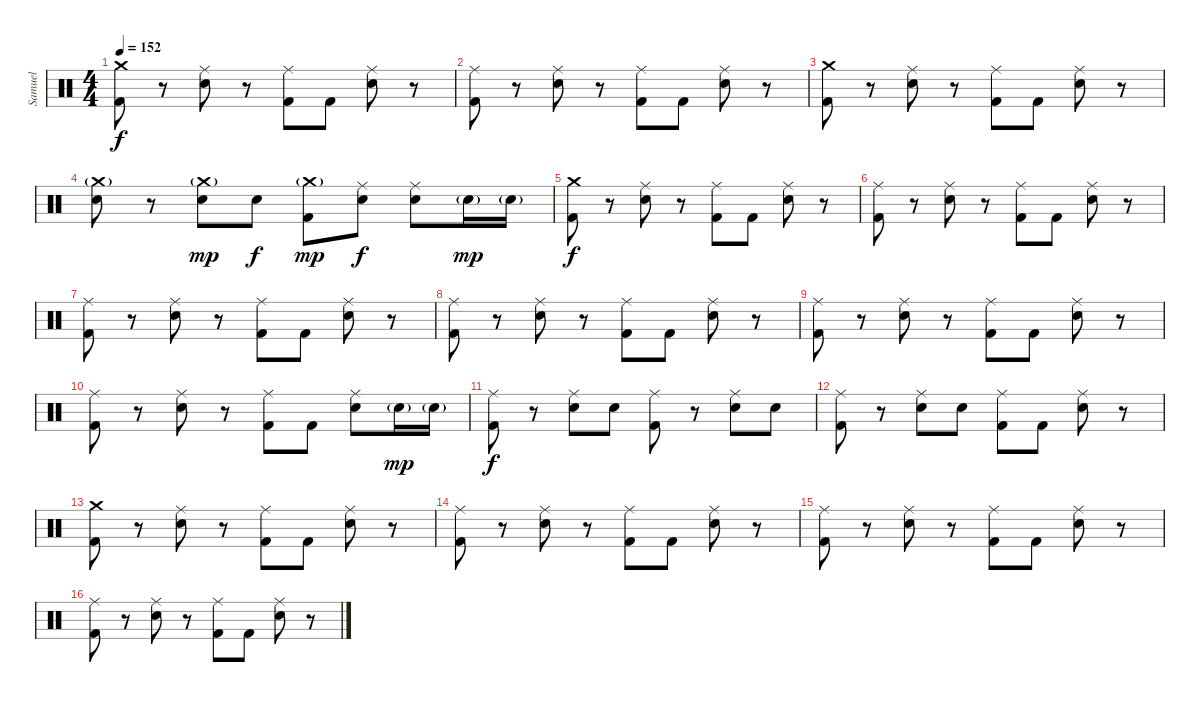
\track ("Samuel" "Samuel") {instrument percussion}
\staff {score}
\articulation defaults
\ts (4 4)
\tempo 152
\clef neutral
\ks c
("Crash medium (hit)" "Kick (hit) 2").8{dy f} r.8 ("Ride (middle)" "Snare (hit) 2").8 r.8 ("Ride (middle)" "Kick (hit) 2").8 "Kick (hit) 2".8 ("Ride (middle)" "Snare (hit) 2").8 r.8 |
("Ride (middle)" "Kick (hit) 2").8 r.8 ("Ride (middle)" "Snare (hit) 2").8 r.8 ("Ride (middle)" "Kick (hit) 2").8 "Kick (hit) 2".8 ("Ride (middle)" "Snare (hit) 2").8 r.8 |
("Crash medium (hit)" "Kick (hit) 2").8 r.8 ("Ride (middle)" "Snare (hit) 2").8 r.8 ("Ride (middle)" "Kick (hit) 2").8 "Kick (hit) 2".8 ("Ride (middle)" "Snare (hit) 2").8 r.8 |
("Crash medium (hit)"{g} "Snare (hit) 2").8 r.8 ("Crash medium (hit)"{g} "Snare (hit) 2").8{dy mp} "Snare (hit) 2".8{dy f} ("Crash medium (hit)"{g} "Kick (hit) 2").8{dy mp} ("Ride (middle)" "Snare (hit) 2").8{dy f} ("Ride (middle)" "Snare (hit) 2").8 "Snare (hit) 2"{g}.16{dy mp} "Snare (hit) 2"{g}.16 |
("Crash medium (hit)" "Kick (hit) 2").8{dy f} r.8 ("Ride (middle)" "Snare (hit) 2").8 r.8 ("Ride (middle)" "Kick (hit) 2").8 "Kick (hit) 2".8 ("Ride (middle)" "Snare (hit) 2").8 r.8 |
("Ride (middle)" "Kick (hit) 2").8 r.8 ("Ride (middle)" "Snare (hit) 2").8 r.8 ("Ride (middle)" "Kick (hit) 2").8 "Kick (hit) 2".8 ("Ride (middle)" "Snare (hit) 2").8 r.8 |
("Ride (middle)" "Kick (hit) 2").8 r.8 ("Ride (middle)" "Snare (hit) 2").8 r.8 ("Ride (middle)" "Kick (hit) 2").8 "Kick (hit) 2".8 ("Ride (middle)" "Snare (hit) 2").8 r.8 |
("Ride (middle)" "Kick (hit) 2").8 r.8 ("Ride (middle)" "Snare (hit) 2").8 r.8 ("Ride (middle)" "Kick (hit) 2").8 "Kick (hit) 2".8 ("Ride (middle)" "Snare (hit) 2").8 r.8 |
("Ride (middle)" "Kick (hit) 2").8 r.8 ("Ride (middle)" "Snare (hit) 2").8 r.8 ("Ride (middle)" "Kick (hit) 2").8 "Kick (hit) 2".8 ("Ride (middle)" "Snare (hit) 2").8 r.8 |
("Ride (middle)" "Kick (hit) 2").8 r.8 ("Ride (middle)" "Snare (hit) 2").8 r.8 ("Ride (middle)" "Kick (hit) 2").8 "Kick (hit) 2".8 ("Ride (middle)" "Snare (hit) 2").8 "Snare (hit) 2"{g}.16{dy mp} "Snare (hit) 2"{g}.16 |
("Ride (middle)" "Kick (hit) 2").8{dy f} r.8 ("Ride (middle)" "Snare (hit) 2").8 "Snare (hit) 2".8 ("Ride (middle)" "Kick (hit) 2").8 r.8 ("Ride (middle)" "Snare (hit) 2").8 "Snare (hit) 2".8 |
("Ride (middle)" "Kick (hit) 2").8 r.8 ("Ride (middle)" "Snare (hit) 2").8 "Snare (hit) 2".8 ("Ride (middle)" "Kick (hit) 2").8 "Kick (hit) 2".8 ("Ride (middle)" "Snare (hit) 2").8 r.8 |
("Crash medium (hit)" "Kick (hit) 2").8 r.8 ("Ride (middle)" "Snare (hit) 2").8 r.8 ("Ride (middle)" "Kick (hit) 2").8 "Kick (hit) 2".8 ("Ride (middle)" "Snare (hit) 2").8 r.8 |
("Ride (middle)" "Kick (hit) 2").8 r.8 ("Ride (middle)" "Snare (hit) 2").8 r.8 ("Ride (middle)" "Kick (hit) 2").8 "Kick (hit) 2".8 ("Ride (middle)" "Snare (hit) 2").8 r.8 |
("Ride (middle)" "Kick (hit) 2").8 r.8 ("Ride (middle)" "Snare (hit) 2").8 r.8 ("Ride (middle)" "Kick (hit) 2").8 "Kick (hit) 2".8 ("Ride (middle)" "Snare (hit) 2").8 r.8 |
("Ride (middle)" "Kick (hit) 2").8 r.8 ("Ride (middle)" "Snare (hit) 2").8 r.8 ("Ride (middle)" "Kick (hit) 2").8 "Kick (hit) 2".8 ("Ride (middle)" "Snare (hit) 2").8 r.8
